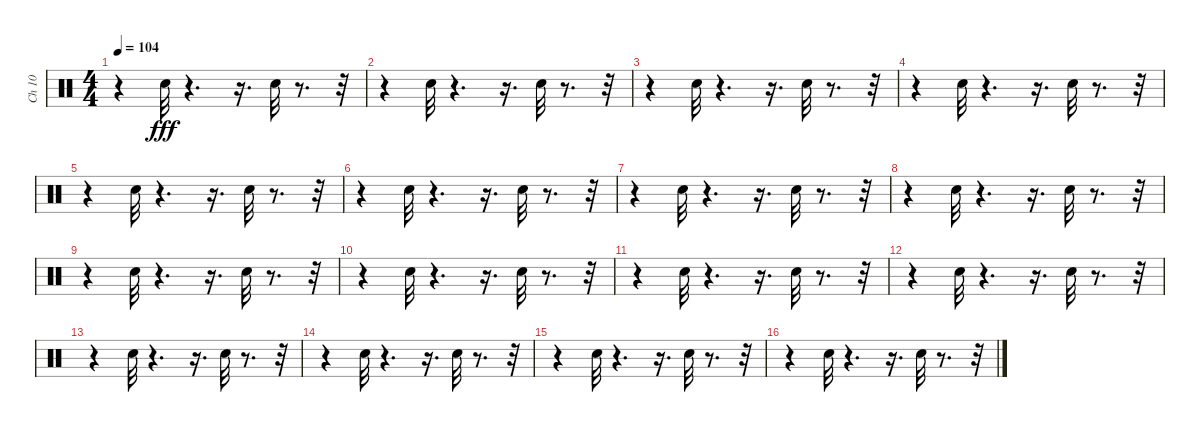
\track ("Ch 10   " "Ch 10   ") {instrument percussion}
\staff {score}
\articulation defaults
\ts (4 4)
\tempo 104
\clef neutral
\ks c
r.4{dy fff} "Snare (hit) 2".32 r.4{d} r.16{d} "Snare (hit) 2".32 r.8{d} r.32 |
r.4 "Snare (hit) 2".32 r.4{d} r.16{d} "Snare (hit) 2".32 r.8{d} r.32 |
r.4 "Snare (hit) 2".32 r.4{d} r.16{d} "Snare (hit) 2".32 r.8{d} r.32 |
r.4 "Snare (hit) 2".32 r.4{d} r.16{d} "Snare (hit) 2".32 r.8{d} r.32 |
r.4 "Snare (hit) 2".32 r.4{d} r.16{d} "Snare (hit) 2".32 r.8{d} r.32 |
r.4 "Snare (hit) 2".32 r.4{d} r.16{d} "Snare (hit) 2".32 r.8{d} r.32 |
r.4 "Snare (hit) 2".32 r.4{d} r.16{d} "Snare (hit) 2".32 r.8{d} r.32 |
r.4 "Snare (hit) 2".32 r.4{d} r.16{d} "Snare (hit) 2".32 r.8{d} r.32 |
r.4 "Snare (hit) 2".32 r.4{d} r.16{d} "Snare (hit) 2".32 r.8{d} r.32 |
r.4 "Snare (hit) 2".32 r.4{d} r.16{d} "Snare (hit) 2".32 r.8{d} r.32 |
r.4 "Snare (hit) 2".32 r.4{d} r.16{d} "Snare (hit) 2".32 r.8{d} r.32 |
r.4 "Snare (hit) 2".32 r.4{d} r.16{d} "Snare (hit) 2".32 r.8{d} r.32 |
r.4 "Snare (hit) 2".32 r.4{d} r.16{d} "Snare (hit) 2".32 r.8{d} r.32 |
r.4 "Snare (hit) 2".32 r.4{d} r.16{d} "Snare (hit) 2".32 r.8{d} r.32 |
r.4 "Snare (hit) 2".32 r.4{d} r.16{d} "Snare (hit) 2".32 r.8{d} r.32 |
r.4 "Snare (hit) 2".32 r.4{d} r.16{d} "Snare (hit) 2".32 r.8{d} r.32
